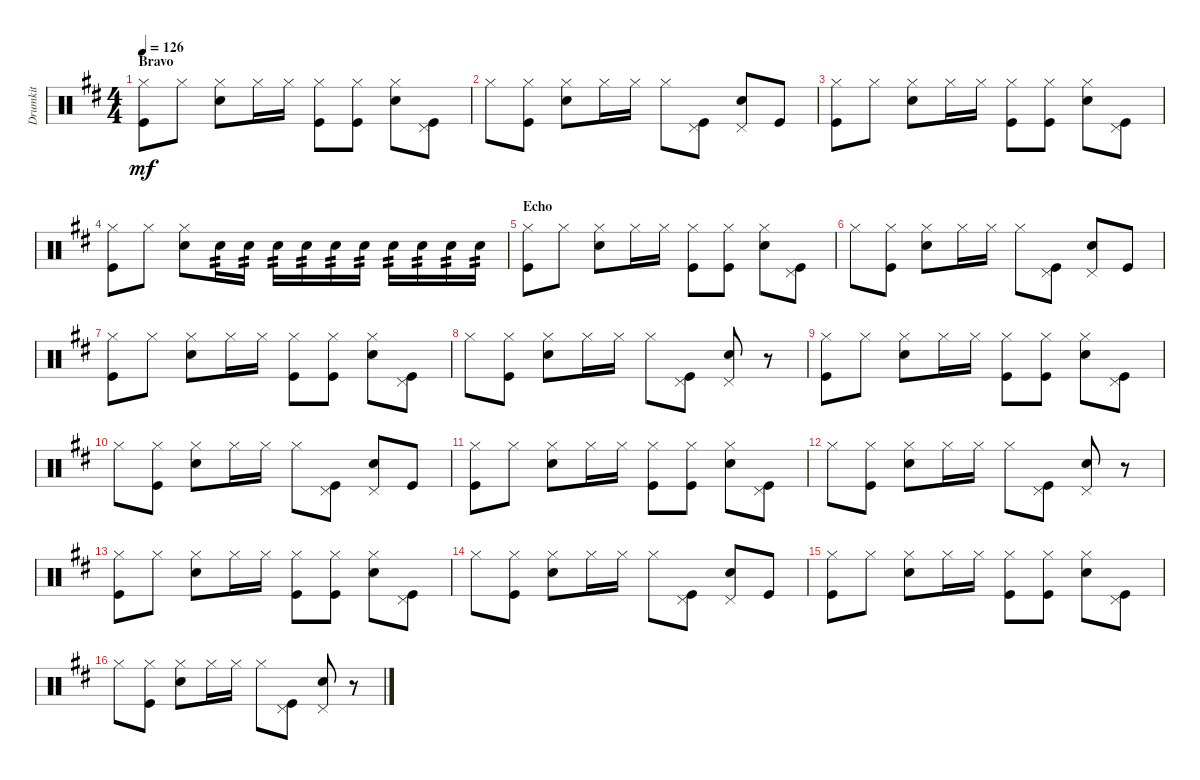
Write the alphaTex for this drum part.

\track ("Drumkit" "Drumkit") {instrument percussion}
\staff {score}
\articulation defaults
\ts (4 4)
\section ("" "Bravo")
\tempo 126
\clef neutral
\ks bminor
("Hi-Hat (closed)" "Kick (hit)").8{dy mf} "Hi-Hat (closed)".8 ("Hi-Hat (closed)" "Snare (hit) 2").8 "Hi-Hat (closed)".16 "Hi-Hat (closed)".16 ("Hi-Hat (closed)" "Kick (hit)").8 ("Hi-Hat (closed)" "Kick (hit)").8 ("Hi-Hat (closed)" "Snare (hit) 2").8 ("Kick (hit)" "Pedal Hi-Hat (hit)").8 |
"Hi-Hat (closed)".8 ("Hi-Hat (closed)" "Kick (hit)").8 ("Hi-Hat (closed)" "Snare (hit) 2").8 "Hi-Hat (closed)".16 "Hi-Hat (closed)".16 "Hi-Hat (closed)".8 ("Kick (hit)" "Pedal Hi-Hat (hit)").8 ("Snare (hit) 2" "Pedal Hi-Hat (hit)").8 "Kick (hit)".8 |
("Hi-Hat (closed)" "Kick (hit)").8 "Hi-Hat (closed)".8 ("Hi-Hat (closed)" "Snare (hit) 2").8 "Hi-Hat (closed)".16 "Hi-Hat (closed)".16 ("Hi-Hat (closed)" "Kick (hit)").8 ("Hi-Hat (closed)" "Kick (hit)").8 ("Hi-Hat (closed)" "Snare (hit) 2").8 ("Kick (hit)" "Pedal Hi-Hat (hit)").8 |
("Hi-Hat (closed)" "Kick (hit)").8 "Hi-Hat (closed)".8 ("Hi-Hat (closed)" "Snare (hit) 2").8 "Snare (hit) 2".16{tp 2} "Snare (hit) 2".16{tp 2} "Snare (hit) 2".16{tp 2} "Snare (hit) 2".16{tp 2} "Snare (hit) 2".16{tp 2} "Snare (hit) 2".16{tp 2} "Snare (hit) 2".16{tp 2} "Snare (hit) 2".16{tp 2} "Snare (hit) 2".16{tp 2} "Snare (hit) 2".16{tp 2} |
\section ("" "Echo")
("Hi-Hat (closed)" "Kick (hit)").8 "Hi-Hat (closed)".8 ("Hi-Hat (closed)" "Snare (hit) 2").8 "Hi-Hat (closed)".16 "Hi-Hat (closed)".16 ("Hi-Hat (closed)" "Kick (hit)").8 ("Hi-Hat (closed)" "Kick (hit)").8 ("Hi-Hat (closed)" "Snare (hit) 2").8 ("Kick (hit)" "Pedal Hi-Hat (hit)").8 |
"Hi-Hat (closed)".8 ("Hi-Hat (closed)" "Kick (hit)").8 ("Hi-Hat (closed)" "Snare (hit) 2").8 "Hi-Hat (closed)".16 "Hi-Hat (closed)".16 "Hi-Hat (closed)".8 ("Kick (hit)" "Pedal Hi-Hat (hit)").8 ("Snare (hit) 2" "Pedal Hi-Hat (hit)").8 "Kick (hit)".8 |
("Hi-Hat (closed)" "Kick (hit)").8 "Hi-Hat (closed)".8 ("Hi-Hat (closed)" "Snare (hit) 2").8 "Hi-Hat (closed)".16 "Hi-Hat (closed)".16 ("Hi-Hat (closed)" "Kick (hit)").8 ("Hi-Hat (closed)" "Kick (hit)").8 ("Hi-Hat (closed)" "Snare (hit) 2").8 ("Kick (hit)" "Pedal Hi-Hat (hit)").8 |
"Hi-Hat (closed)".8 ("Hi-Hat (closed)" "Kick (hit)").8 ("Hi-Hat (closed)" "Snare (hit) 2").8 "Hi-Hat (closed)".16 "Hi-Hat (closed)".16 "Hi-Hat (closed)".8 ("Kick (hit)" "Pedal Hi-Hat (hit)").8 ("Snare (hit) 2" "Pedal Hi-Hat (hit)").8 r.8 |
("Hi-Hat (closed)" "Kick (hit)").8 "Hi-Hat (closed)".8 ("Hi-Hat (closed)" "Snare (hit) 2").8 "Hi-Hat (closed)".16 "Hi-Hat (closed)".16 ("Hi-Hat (closed)" "Kick (hit)").8 ("Hi-Hat (closed)" "Kick (hit)").8 ("Hi-Hat (closed)" "Snare (hit) 2").8 ("Kick (hit)" "Pedal Hi-Hat (hit)").8 |
"Hi-Hat (closed)".8 ("Hi-Hat (closed)" "Kick (hit)").8 ("Hi-Hat (closed)" "Snare (hit) 2").8 "Hi-Hat (closed)".16 "Hi-Hat (closed)".16 "Hi-Hat (closed)".8 ("Kick (hit)" "Pedal Hi-Hat (hit)").8 ("Snare (hit) 2" "Pedal Hi-Hat (hit)").8 "Kick (hit)".8 |
("Hi-Hat (closed)" "Kick (hit)").8 "Hi-Hat (closed)".8 ("Hi-Hat (closed)" "Snare (hit) 2").8 "Hi-Hat (closed)".16 "Hi-Hat (closed)".16 ("Hi-Hat (closed)" "Kick (hit)").8 ("Hi-Hat (closed)" "Kick (hit)").8 ("Hi-Hat (closed)" "Snare (hit) 2").8 ("Kick (hit)" "Pedal Hi-Hat (hit)").8 |
"Hi-Hat (closed)".8 ("Hi-Hat (closed)" "Kick (hit)").8 ("Hi-Hat (closed)" "Snare (hit) 2").8 "Hi-Hat (closed)".16 "Hi-Hat (closed)".16 "Hi-Hat (closed)".8 ("Kick (hit)" "Pedal Hi-Hat (hit)").8 ("Snare (hit) 2" "Pedal Hi-Hat (hit)").8 r.8 |
("Hi-Hat (closed)" "Kick (hit)").8 "Hi-Hat (closed)".8 ("Hi-Hat (closed)" "Snare (hit) 2").8 "Hi-Hat (closed)".16 "Hi-Hat (closed)".16 ("Hi-Hat (closed)" "Kick (hit)").8 ("Hi-Hat (closed)" "Kick (hit)").8 ("Hi-Hat (closed)" "Snare (hit) 2").8 ("Kick (hit)" "Pedal Hi-Hat (hit)").8 |
"Hi-Hat (closed)".8 ("Hi-Hat (closed)" "Kick (hit)").8 ("Hi-Hat (closed)" "Snare (hit) 2").8 "Hi-Hat (closed)".16 "Hi-Hat (closed)".16 "Hi-Hat (closed)".8 ("Kick (hit)" "Pedal Hi-Hat (hit)").8 ("Snare (hit) 2" "Pedal Hi-Hat (hit)").8 "Kick (hit)".8 |
("Hi-Hat (closed)" "Kick (hit)").8 "Hi-Hat (closed)".8 ("Hi-Hat (closed)" "Snare (hit) 2").8 "Hi-Hat (closed)".16 "Hi-Hat (closed)".16 ("Hi-Hat (closed)" "Kick (hit)").8 ("Hi-Hat (closed)" "Kick (hit)").8 ("Hi-Hat (closed)" "Snare (hit) 2").8 ("Kick (hit)" "Pedal Hi-Hat (hit)").8 |
"Hi-Hat (closed)".8 ("Hi-Hat (closed)" "Kick (hit)").8 ("Hi-Hat (closed)" "Snare (hit) 2").8 "Hi-Hat (closed)".16 "Hi-Hat (closed)".16 "Hi-Hat (closed)".8 ("Kick (hit)" "Pedal Hi-Hat (hit)").8 ("Snare (hit) 2" "Pedal Hi-Hat (hit)").8 r.8
